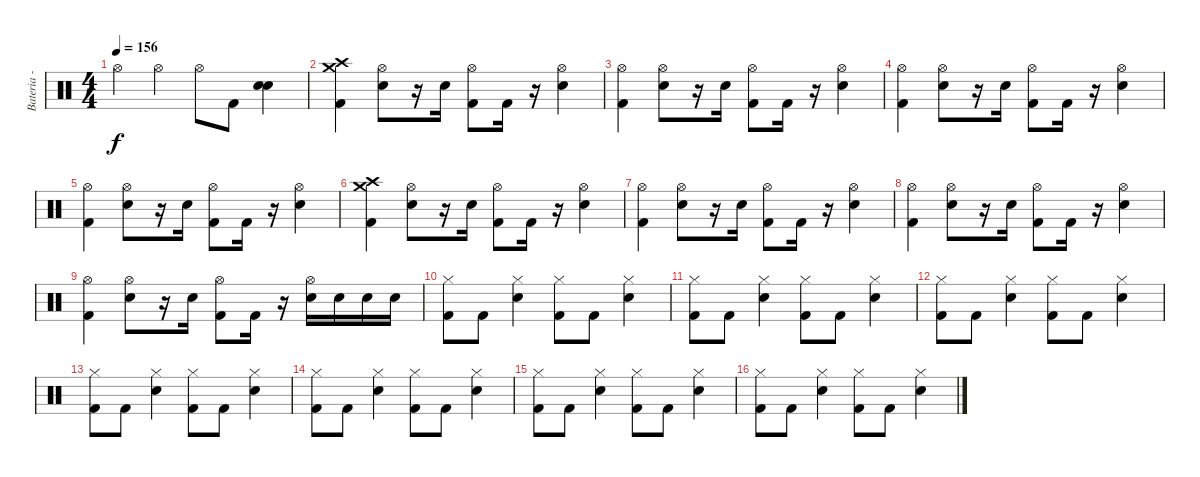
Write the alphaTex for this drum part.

\track ("Bateria - Kalú" "Bateria - ") {instrument percussion}
\staff {score}
\articulation defaults
\ts (4 4)
\tempo 156
\clef neutral
\ks c "Hi-Hat (open)".4{dy f} "Hi-Hat (open)".4 "Hi-Hat (open)".8 "Kick (hit) 2".8
("Electric Snare (hit)" "Electric Snare (hit)").4 |
("Crash high (hit)" "Crash medium (hit)" "Kick (hit) 2").4 ("Hi-Hat (open)" "Electric Snare (hit)").8 r.16 "Electric Snare (hit)".16 ("Hi-Hat (open)" "Kick (hit) 2").8 "Kick (hit) 2".16 r.16 ("Hi-Hat (open)" "Electric Snare (hit)").4 |
("Hi-Hat (open)" "Kick (hit) 2").4 ("Hi-Hat (open)" "Electric Snare (hit)").8 r.16 "Electric Snare (hit)".16 ("Hi-Hat (open)" "Kick (hit) 2").8 "Kick (hit) 2".16 r.16 ("Hi-Hat (open)" "Electric Snare (hit)").4 |
("Hi-Hat (open)" "Kick (hit) 2").4 ("Hi-Hat (open)" "Electric Snare (hit)").8 r.16 "Electric Snare (hit)".16 ("Hi-Hat (open)" "Kick (hit) 2").8 "Kick (hit) 2".16 r.16 ("Hi-Hat (open)" "Electric Snare (hit)").4 |
("Hi-Hat (open)" "Kick (hit) 2").4 ("Hi-Hat (open)" "Electric Snare (hit)").8 r.16 "Electric Snare (hit)".16 ("Hi-Hat (open)" "Kick (hit) 2").8 "Kick (hit) 2".16 r.16 ("Hi-Hat (open)" "Electric Snare (hit)").4 |
("Crash high (hit)" "Crash medium (hit)" "Kick (hit) 2").4 ("Hi-Hat (open)" "Electric Snare (hit)").8 r.16 "Electric Snare (hit)".16 ("Hi-Hat (open)" "Kick (hit) 2").8 "Kick (hit) 2".16 r.16 ("Hi-Hat (open)" "Electric Snare (hit)").4 |
("Hi-Hat (open)" "Kick (hit) 2").4 ("Hi-Hat (open)" "Electric Snare (hit)").8 r.16 "Electric Snare (hit)".16 ("Hi-Hat (open)" "Kick (hit) 2").8 "Kick (hit) 2".16 r.16 ("Hi-Hat (open)" "Electric Snare (hit)").4 |
("Hi-Hat (open)" "Kick (hit) 2").4 ("Hi-Hat (open)" "Electric Snare (hit)").8 r.16 "Electric Snare (hit)".16 ("Hi-Hat (open)" "Kick (hit) 2").8 "Kick (hit) 2".16 r.16 ("Hi-Hat (open)" "Electric Snare (hit)").4 |
("Hi-Hat (open)" "Kick (hit) 2").4 ("Hi-Hat (open)" "Electric Snare (hit)").8 r.16 "Electric Snare (hit)".16 ("Hi-Hat (open)" "Kick (hit) 2").8 "Kick (hit) 2".16 r.16 ("Hi-Hat (open)" "Electric Snare (hit)").16 "Electric Snare (hit)".16 "Electric Snare (hit)".16 "Electric Snare (hit)".16 |
("Hi-Hat (closed)" "Kick (hit) 2").8 "Kick (hit) 2".8 ("Hi-Hat (closed)" "Electric Snare (hit)").4 ("Hi-Hat (closed)" "Kick (hit) 2").8 "Kick (hit) 2".8 ("Hi-Hat (closed)" "Electric Snare (hit)").4 |
("Hi-Hat (closed)" "Kick (hit) 2").8 "Kick (hit) 2".8 ("Hi-Hat (closed)" "Electric Snare (hit)").4 ("Hi-Hat (closed)" "Kick (hit) 2").8 "Kick (hit) 2".8 ("Hi-Hat (closed)" "Electric Snare (hit)").4 |
("Hi-Hat (closed)" "Kick (hit) 2").8 "Kick (hit) 2".8 ("Hi-Hat (closed)" "Electric Snare (hit)").4 ("Hi-Hat (closed)" "Kick (hit) 2").8 "Kick (hit) 2".8 ("Hi-Hat (closed)" "Electric Snare (hit)").4 |
("Hi-Hat (closed)" "Kick (hit) 2").8 "Kick (hit) 2".8 ("Hi-Hat (closed)" "Electric Snare (hit)").4 ("Hi-Hat (closed)" "Kick (hit) 2").8 "Kick (hit) 2".8 ("Hi-Hat (closed)" "Electric Snare (hit)").4 |
("Hi-Hat (closed)" "Kick (hit) 2").8 "Kick (hit) 2".8 ("Hi-Hat (closed)" "Electric Snare (hit)").4 ("Hi-Hat (closed)" "Kick (hit) 2").8 "Kick (hit) 2".8 ("Hi-Hat (closed)" "Electric Snare (hit)").4 |
("Hi-Hat (closed)" "Kick (hit) 2").8 "Kick (hit) 2".8 ("Hi-Hat (closed)" "Electric Snare (hit)").4 ("Hi-Hat (closed)" "Kick (hit) 2").8 "Kick (hit) 2".8 ("Hi-Hat (closed)" "Electric Snare (hit)").4 |
("Hi-Hat (closed)" "Kick (hit) 2").8 "Kick (hit) 2".8 ("Hi-Hat (closed)" "Electric Snare (hit)").4 ("Hi-Hat (closed)" "Kick (hit) 2").8 "Kick (hit) 2".8 ("Hi-Hat (closed)" "Electric Snare (hit)").4
